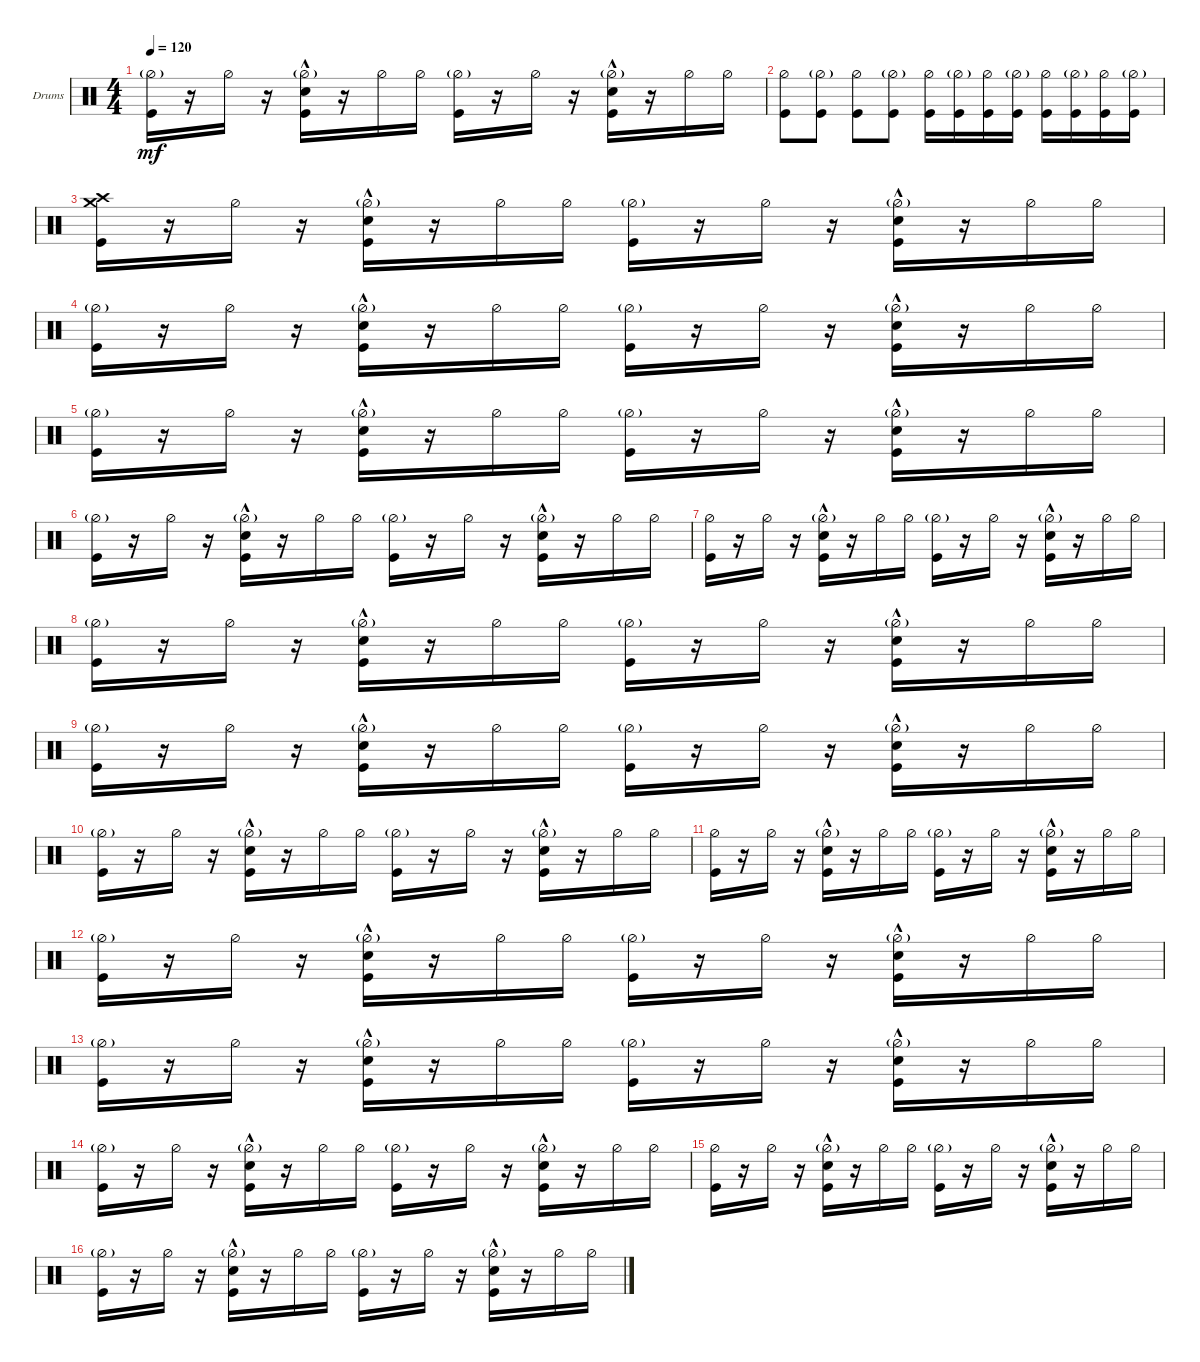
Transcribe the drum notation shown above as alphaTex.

\defaultSystemsLayout 4
\bracketExtendMode groupsimilarinstruments
\firstSystemTrackNameOrientation horizontal
\otherSystemsTrackNameOrientation horizontal
\track ("Drumkit" "Drums") {instrument percussion}
\staff {score}
\articulation defaults
\ts (4 4)
\tempo 120
\clef neutral
\ks c
("Kick (hit)" "Hi-Hat (half)"{g}).16{dy mf} r.16 "Hi-Hat (half)".16 r.16 ("Kick (hit)" "Snare (hit) 2"{hac} "Hi-Hat (half)"{g}).16 r.16 "Hi-Hat (half)".16 "Hi-Hat (half)".16 ("Kick (hit)" "Hi-Hat (half)"{g}).16 r.16 "Hi-Hat (half)".16 r.16 ("Kick (hit)" "Snare (hit) 2"{hac} "Hi-Hat (half)"{g}).16 r.16 "Hi-Hat (half)".16 "Hi-Hat (half)".16 |
("Hi-Hat (half)" "Kick (hit)").8 ("Hi-Hat (half)"{g} "Kick (hit)").8 ("Hi-Hat (half)" "Kick (hit)").8 ("Hi-Hat (half)"{g} "Kick (hit)").8 ("Hi-Hat (half)" "Kick (hit)").16 ("Hi-Hat (half)"{g} "Kick (hit)").16 ("Hi-Hat (half)" "Kick (hit)").16 ("Hi-Hat (half)"{g} "Kick (hit)").16 ("Hi-Hat (half)" "Kick (hit)").16 ("Hi-Hat (half)"{g} "Kick (hit)").16 ("Hi-Hat (half)" "Kick (hit)").16 ("Hi-Hat (half)"{g} "Kick (hit)").16 |
("Crash medium (hit)" "Crash high (hit)" "Kick (hit)").16 r.16 "Hi-Hat (half)".16 r.16 ("Kick (hit)" "Snare (hit) 2"{hac} "Hi-Hat (half)"{g}).16 r.16 "Hi-Hat (half)".16 "Hi-Hat (half)".16 ("Kick (hit)" "Hi-Hat (half)"{g}).16 r.16 "Hi-Hat (half)".16 r.16 ("Kick (hit)" "Snare (hit) 2"{hac} "Hi-Hat (half)"{g}).16 r.16 "Hi-Hat (half)".16 "Hi-Hat (half)".16 |
("Kick (hit)" "Hi-Hat (half)"{g}).16 r.16 "Hi-Hat (half)".16 r.16 ("Kick (hit)" "Snare (hit) 2"{hac} "Hi-Hat (half)"{g}).16 r.16 "Hi-Hat (half)".16 "Hi-Hat (half)".16 ("Kick (hit)" "Hi-Hat (half)"{g}).16 r.16 "Hi-Hat (half)".16 r.16 ("Kick (hit)" "Snare (hit) 2"{hac} "Hi-Hat (half)"{g}).16 r.16 "Hi-Hat (half)".16 "Hi-Hat (half)".16 |
("Kick (hit)" "Hi-Hat (half)"{g}).16 r.16 "Hi-Hat (half)".16 r.16 ("Kick (hit)" "Snare (hit) 2"{hac} "Hi-Hat (half)"{g}).16 r.16 "Hi-Hat (half)".16 "Hi-Hat (half)".16 ("Kick (hit)" "Hi-Hat (half)"{g}).16 r.16 "Hi-Hat (half)".16 r.16 ("Kick (hit)" "Snare (hit) 2"{hac} "Hi-Hat (half)"{g}).16 r.16 "Hi-Hat (half)".16 "Hi-Hat (half)".16 |
("Kick (hit)" "Hi-Hat (half)"{g}).16 r.16 "Hi-Hat (half)".16 r.16 ("Kick (hit)" "Snare (hit) 2"{hac} "Hi-Hat (half)"{g}).16 r.16 "Hi-Hat (half)".16 "Hi-Hat (half)".16 ("Kick (hit)" "Hi-Hat (half)"{g}).16 r.16 "Hi-Hat (half)".16 r.16 ("Kick (hit)" "Snare (hit) 2"{hac} "Hi-Hat (half)"{g}).16 r.16 "Hi-Hat (half)".16 "Hi-Hat (half)".16 |
("Kick (hit)" "Hi-Hat (half)").16 r.16 "Hi-Hat (half)".16 r.16 ("Kick (hit)" "Snare (hit) 2"{hac} "Hi-Hat (half)"{g}).16 r.16 "Hi-Hat (half)".16 "Hi-Hat (half)".16 ("Kick (hit)" "Hi-Hat (half)"{g}).16 r.16 "Hi-Hat (half)".16 r.16 ("Kick (hit)" "Snare (hit) 2"{hac} "Hi-Hat (half)"{g}).16 r.16 "Hi-Hat (half)".16 "Hi-Hat (half)".16 |
("Kick (hit)" "Hi-Hat (half)"{g}).16 r.16 "Hi-Hat (half)".16 r.16 ("Kick (hit)" "Snare (hit) 2"{hac} "Hi-Hat (half)"{g}).16 r.16 "Hi-Hat (half)".16 "Hi-Hat (half)".16 ("Kick (hit)" "Hi-Hat (half)"{g}).16 r.16 "Hi-Hat (half)".16 r.16 ("Kick (hit)" "Snare (hit) 2"{hac} "Hi-Hat (half)"{g}).16 r.16 "Hi-Hat (half)".16 "Hi-Hat (half)".16 |
("Kick (hit)" "Hi-Hat (half)"{g}).16 r.16 "Hi-Hat (half)".16 r.16 ("Kick (hit)" "Snare (hit) 2"{hac} "Hi-Hat (half)"{g}).16 r.16 "Hi-Hat (half)".16 "Hi-Hat (half)".16 ("Kick (hit)" "Hi-Hat (half)"{g}).16 r.16 "Hi-Hat (half)".16 r.16 ("Kick (hit)" "Snare (hit) 2"{hac} "Hi-Hat (half)"{g}).16 r.16 "Hi-Hat (half)".16 "Hi-Hat (half)".16 |
("Kick (hit)" "Hi-Hat (half)"{g}).16 r.16 "Hi-Hat (half)".16 r.16 ("Kick (hit)" "Snare (hit) 2"{hac} "Hi-Hat (half)"{g}).16 r.16 "Hi-Hat (half)".16 "Hi-Hat (half)".16 ("Kick (hit)" "Hi-Hat (half)"{g}).16 r.16 "Hi-Hat (half)".16 r.16 ("Kick (hit)" "Snare (hit) 2"{hac} "Hi-Hat (half)"{g}).16 r.16 "Hi-Hat (half)".16 "Hi-Hat (half)".16 |
("Kick (hit)" "Hi-Hat (half)").16 r.16 "Hi-Hat (half)".16 r.16 ("Kick (hit)" "Snare (hit) 2"{hac} "Hi-Hat (half)"{g}).16 r.16 "Hi-Hat (half)".16 "Hi-Hat (half)".16 ("Kick (hit)" "Hi-Hat (half)"{g}).16 r.16 "Hi-Hat (half)".16 r.16 ("Kick (hit)" "Snare (hit) 2"{hac} "Hi-Hat (half)"{g}).16 r.16 "Hi-Hat (half)".16 "Hi-Hat (half)".16 |
("Kick (hit)" "Hi-Hat (half)"{g}).16 r.16 "Hi-Hat (half)".16 r.16 ("Kick (hit)" "Snare (hit) 2"{hac} "Hi-Hat (half)"{g}).16 r.16 "Hi-Hat (half)".16 "Hi-Hat (half)".16 ("Kick (hit)" "Hi-Hat (half)"{g}).16 r.16 "Hi-Hat (half)".16 r.16 ("Kick (hit)" "Snare (hit) 2"{hac} "Hi-Hat (half)"{g}).16 r.16 "Hi-Hat (half)".16 "Hi-Hat (half)".16 |
("Kick (hit)" "Hi-Hat (half)"{g}).16 r.16 "Hi-Hat (half)".16 r.16 ("Kick (hit)" "Snare (hit) 2"{hac} "Hi-Hat (half)"{g}).16 r.16 "Hi-Hat (half)".16 "Hi-Hat (half)".16 ("Kick (hit)" "Hi-Hat (half)"{g}).16 r.16 "Hi-Hat (half)".16 r.16 ("Kick (hit)" "Snare (hit) 2"{hac} "Hi-Hat (half)"{g}).16 r.16 "Hi-Hat (half)".16 "Hi-Hat (half)".16 |
("Kick (hit)" "Hi-Hat (half)"{g}).16 r.16 "Hi-Hat (half)".16 r.16 ("Kick (hit)" "Snare (hit) 2"{hac} "Hi-Hat (half)"{g}).16 r.16 "Hi-Hat (half)".16 "Hi-Hat (half)".16 ("Kick (hit)" "Hi-Hat (half)"{g}).16 r.16 "Hi-Hat (half)".16 r.16 ("Kick (hit)" "Snare (hit) 2"{hac} "Hi-Hat (half)"{g}).16 r.16 "Hi-Hat (half)".16 "Hi-Hat (half)".16 |
("Kick (hit)" "Hi-Hat (half)").16 r.16 "Hi-Hat (half)".16 r.16 ("Kick (hit)" "Snare (hit) 2"{hac} "Hi-Hat (half)"{g}).16 r.16 "Hi-Hat (half)".16 "Hi-Hat (half)".16 ("Kick (hit)" "Hi-Hat (half)"{g}).16 r.16 "Hi-Hat (half)".16 r.16 ("Kick (hit)" "Snare (hit) 2"{hac} "Hi-Hat (half)"{g}).16 r.16 "Hi-Hat (half)".16 "Hi-Hat (half)".16 |
("Kick (hit)" "Hi-Hat (half)"{g}).16 r.16 "Hi-Hat (half)".16 r.16 ("Kick (hit)" "Snare (hit) 2"{hac} "Hi-Hat (half)"{g}).16 r.16 "Hi-Hat (half)".16 "Hi-Hat (half)".16 ("Kick (hit)" "Hi-Hat (half)"{g}).16 r.16 "Hi-Hat (half)".16 r.16 ("Kick (hit)" "Snare (hit) 2"{hac} "Hi-Hat (half)"{g}).16 r.16 "Hi-Hat (half)".16 "Hi-Hat (half)".16
